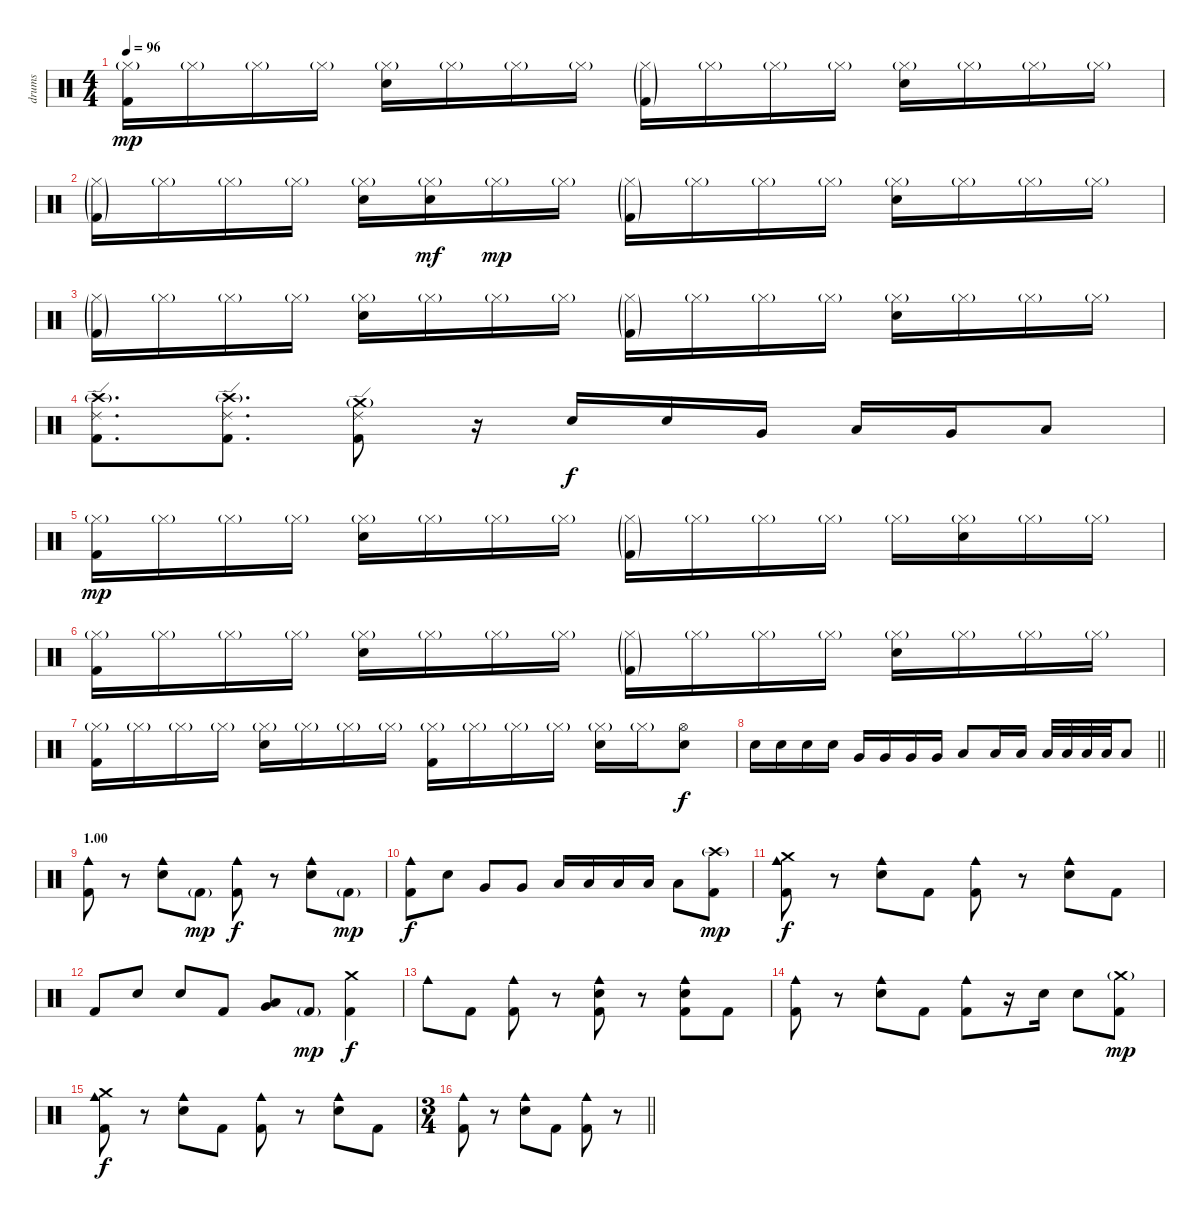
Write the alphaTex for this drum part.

\track ("drums" "drums") {instrument percussion}
\staff {score}
\articulation defaults
\ts (4 4)
\tempo 96
\clef neutral
\ks c
("Hi-Hat (closed)"{g} "Kick (hit) 2").16{dy mp} "Hi-Hat (closed)"{g}.16 "Hi-Hat (closed)"{g}.16 "Hi-Hat (closed)"{g}.16 ("Hi-Hat (closed)"{g} "Electric Snare (hit)").16 "Hi-Hat (closed)"{g}.16 "Hi-Hat (closed)"{g}.16 "Hi-Hat (closed)"{g}.16 ("Hi-Hat (closed)"{g} "Kick (hit) 2"{g}).16 "Hi-Hat (closed)"{g}.16 "Hi-Hat (closed)"{g}.16 "Hi-Hat (closed)"{g}.16 ("Hi-Hat (closed)"{g} "Electric Snare (hit)").16 "Hi-Hat (closed)"{g}.16 "Hi-Hat (closed)"{g}.16 "Hi-Hat (closed)"{g}.16 |
("Hi-Hat (closed)"{g} "Kick (hit) 2"{g}).16 "Hi-Hat (closed)"{g}.16 "Hi-Hat (closed)"{g}.16 "Hi-Hat (closed)"{g}.16 ("Hi-Hat (closed)"{g} "Electric Snare (hit)").16 ("Hi-Hat (closed)"{g} "Electric Snare (hit)").16{dy mf} "Hi-Hat (closed)"{g}.16{dy mp} "Hi-Hat (closed)"{g}.16 ("Hi-Hat (closed)"{g} "Kick (hit) 2"{g}).16 "Hi-Hat (closed)"{g}.16 "Hi-Hat (closed)"{g}.16 "Hi-Hat (closed)"{g}.16 ("Hi-Hat (closed)"{g} "Electric Snare (hit)").16 "Hi-Hat (closed)"{g}.16 "Hi-Hat (closed)"{g}.16 "Hi-Hat (closed)"{g}.16 |
("Hi-Hat (closed)"{g} "Kick (hit) 2"{g}).16 "Hi-Hat (closed)"{g}.16 "Hi-Hat (closed)"{g}.16 "Hi-Hat (closed)"{g}.16 ("Hi-Hat (closed)"{g} "Electric Snare (hit)").16 "Hi-Hat (closed)"{g}.16 "Hi-Hat (closed)"{g}.16 "Hi-Hat (closed)"{g}.16 ("Hi-Hat (closed)"{g} "Kick (hit) 2"{g}).16 "Hi-Hat (closed)"{g}.16 "Hi-Hat (closed)"{g}.16 "Hi-Hat (closed)"{g}.16 ("Hi-Hat (closed)"{g} "Electric Snare (hit)").16 "Hi-Hat (closed)"{g}.16 "Hi-Hat (closed)"{g}.16 "Hi-Hat (closed)"{g}.16 |
("Ride (edge) 2" "Crash high (hit)"{g} "Kick (hit) 2").8{d} ("Ride (edge) 2" "Crash high (hit)"{g} "Kick (hit) 2").8{d} ("Ride (edge) 2" "Crash medium (hit)"{g} "Kick (hit) 2").8 r.16 "Electric Snare (hit)".16{dy f} "Electric Snare (hit)".16 "Very Low Tom (hit)".16 "Low Tom (hit)".16 "Very Low Tom (hit)".16 "Low Tom (hit)".8 |
("Hi-Hat (closed)"{g} "Kick (hit) 2").16{dy mp} "Hi-Hat (closed)"{g}.16 "Hi-Hat (closed)"{g}.16 "Hi-Hat (closed)"{g}.16 ("Hi-Hat (closed)"{g} "Electric Snare (hit)").16 "Hi-Hat (closed)"{g}.16 "Hi-Hat (closed)"{g}.16 "Hi-Hat (closed)"{g}.16 ("Hi-Hat (closed)"{g} "Kick (hit) 2"{g}).16 "Hi-Hat (closed)"{g}.16 "Hi-Hat (closed)"{g}.16 "Hi-Hat (closed)"{g}.16 "Hi-Hat (closed)"{g}.16 ("Hi-Hat (closed)"{g} "Electric Snare (hit)").16 "Hi-Hat (closed)"{g}.16 "Hi-Hat (closed)"{g}.16 |
("Hi-Hat (closed)"{g} "Kick (hit) 2").16 "Hi-Hat (closed)"{g}.16 "Hi-Hat (closed)"{g}.16 "Hi-Hat (closed)"{g}.16 ("Hi-Hat (closed)"{g} "Electric Snare (hit)").16 "Hi-Hat (closed)"{g}.16 "Hi-Hat (closed)"{g}.16 "Hi-Hat (closed)"{g}.16 ("Hi-Hat (closed)"{g} "Kick (hit) 2"{g}).16 "Hi-Hat (closed)"{g}.16 "Hi-Hat (closed)"{g}.16 "Hi-Hat (closed)"{g}.16 ("Hi-Hat (closed)"{g} "Electric Snare (hit)").16 "Hi-Hat (closed)"{g}.16 "Hi-Hat (closed)"{g}.16 "Hi-Hat (closed)"{g}.16 |
("Hi-Hat (closed)"{g} "Kick (hit) 2").16 "Hi-Hat (closed)"{g}.16 "Hi-Hat (closed)"{g}.16 "Hi-Hat (closed)"{g}.16 ("Hi-Hat (closed)"{g} "Electric Snare (hit)").16 "Hi-Hat (closed)"{g}.16 "Hi-Hat (closed)"{g}.16 "Hi-Hat (closed)"{g}.16 ("Hi-Hat (closed)"{g} "Kick (hit) 2").16 "Hi-Hat (closed)"{g}.16 "Hi-Hat (closed)"{g}.16 "Hi-Hat (closed)"{g}.16 ("Hi-Hat (closed)"{g} "Electric Snare (hit)").16 "Hi-Hat (closed)"{g}.16 ("Hi-Hat (open)" "Electric Snare (hit)").8{dy f} |
\barLineRight lightlight "Electric Snare (hit)".16 "Electric Snare (hit)".16 "Electric Snare (hit)".16 "Electric Snare (hit)".16 "Very Low Tom (hit)".16 "Very Low Tom (hit)".16 "Very Low Tom (hit)".16 "Very Low Tom (hit)".16 "Low Tom (hit)".8 "Low Tom (hit)".16 "Low Tom (hit)".16 "Low Tom (hit)".32 "Low Tom (hit)".32 "Low Tom (hit)".32 "Low Tom (hit)".32 "Low Tom (hit)".8
|
\section ("" "1.00")
("Cowbell medium (hit)" "Kick (hit) 2").8 r.8 ("Cowbell medium (hit)" "Electric Snare (hit)").8 "Kick (hit) 2"{g}.8{dy mp} ("Cowbell medium (hit)" "Kick (hit) 2").8{dy f} r.8 ("Cowbell medium (hit)" "Electric Snare (hit)").8 "Kick (hit) 2"{g}.8{dy mp} |
("Cowbell medium (hit)" "Kick (hit) 2").8{dy f} "Electric Snare (hit)".8 "Very Low Tom (hit)".8 "Very Low Tom (hit)".8 "Low Tom (hit)".16 "Low Tom (hit)".16 "Low Tom (hit)".16 "Low Tom (hit)".16 "Low Tom (hit)".8 ("Crash high (hit)"{g} "Kick (hit) 2").8{dy mp} |
("Crash medium (hit)" "Cowbell medium (hit)" "Kick (hit) 2").8{dy f} r.8 ("Cowbell medium (hit)" "Electric Snare (hit)").8 "Kick (hit) 2".8 ("Cowbell medium (hit)" "Kick (hit) 2").8 r.8 ("Cowbell medium (hit)" "Electric Snare (hit)").8 "Kick (hit) 2".8 |
"Kick (hit) 2".8 "Electric Snare (hit)".8 "Electric Snare (hit)".8 "Kick (hit) 2".8 ("Low Tom (hit)" "Very Low Tom (hit)").8 "Kick (hit) 2"{g}.8{dy mp} ("Crash medium (hit)" "Kick (hit) 2").4{dy f} |
"Cowbell medium (hit)".8 "Kick (hit) 2".8 ("Cowbell medium (hit)" "Kick (hit) 2").8 r.8 ("Cowbell medium (hit)" "Kick (hit) 2" "Electric Snare (hit)").8 r.8 ("Cowbell medium (hit)" "Kick (hit) 2" "Electric Snare (hit)").8 "Kick (hit) 2".8 |
("Cowbell medium (hit)" "Kick (hit) 2").8 r.8 ("Cowbell medium (hit)" "Electric Snare (hit)").8 "Kick (hit) 2".8 ("Cowbell medium (hit)" "Kick (hit) 2").8 r.16 "Electric Snare (hit)".16 "Electric Snare (hit)".8 ("Crash medium (hit)"{g} "Kick (hit) 2").8{dy mp} |
("Crash medium (hit)" "Cowbell medium (hit)" "Kick (hit) 2").8{dy f} r.8 ("Cowbell medium (hit)" "Electric Snare (hit)").8 "Kick (hit) 2".8 ("Cowbell medium (hit)" "Kick (hit) 2").8 r.8 ("Cowbell medium (hit)" "Electric Snare (hit)").8 "Kick (hit) 2".8 |
\ts (3 4)
\barLineRight lightlight
("Cowbell medium (hit)" "Kick (hit) 2").8 r.8 ("Cowbell medium (hit)" "Electric Snare (hit)").8 "Kick (hit) 2".8 ("Cowbell medium (hit)" "Kick (hit) 2").8 r.8
